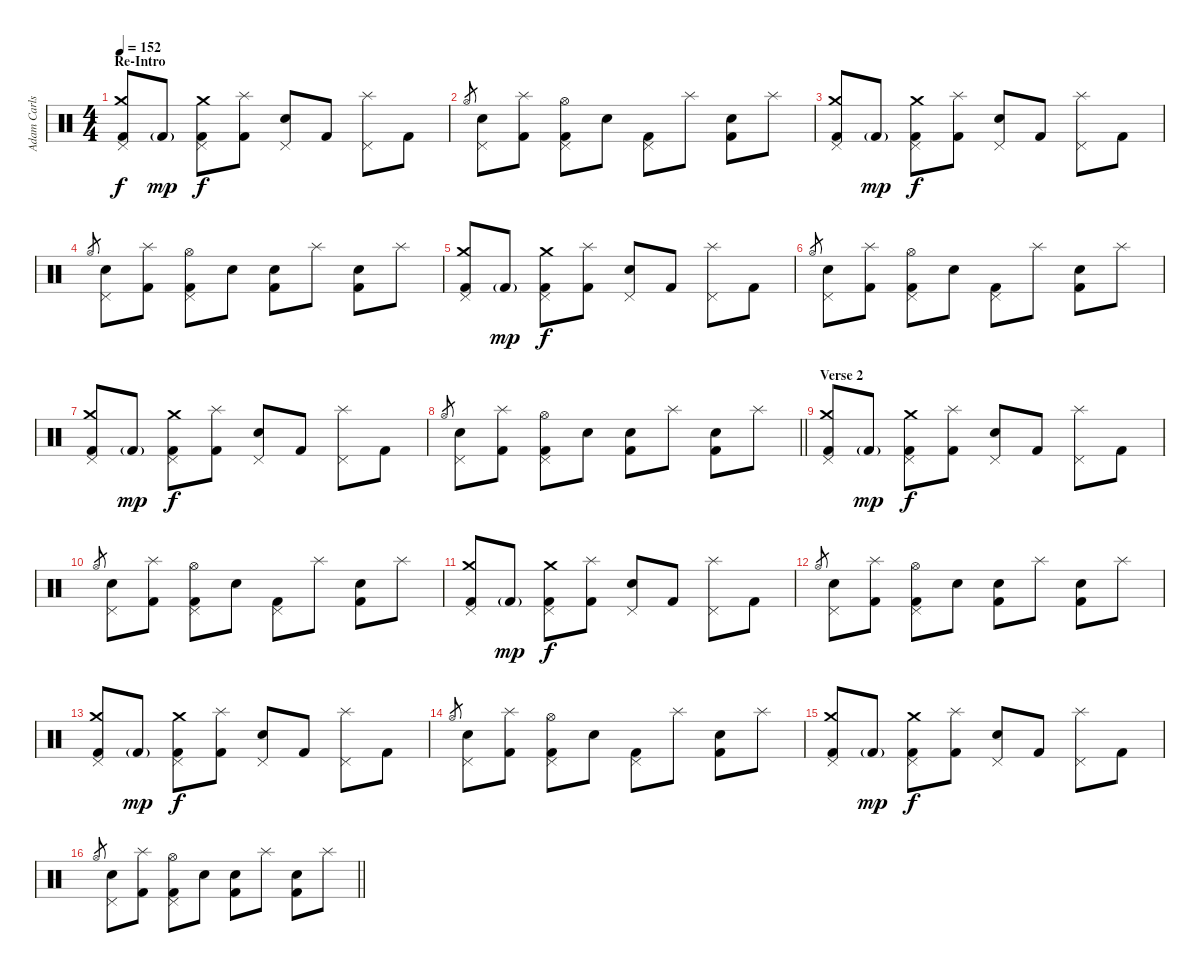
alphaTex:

\track ("Adam Carlson" "Adam Carls") {instrument percussion}
\staff {score}
\articulation defaults
\ts (4 4)
\section ("" "Re-Intro")
\tempo 152
\clef neutral
\ks c
("Pedal Hi-Hat (hit)" "Crash medium (hit)" "Kick (hit) 2").8{dy f} "Kick (hit) 2"{g}.8{dy mp} ("Pedal Hi-Hat (hit)" "Crash medium (hit)" "Kick (hit) 2").8{dy f} ("Splash (hit)" "Kick (hit) 2").8 ("Pedal Hi-Hat (hit)" "Electric Snare (hit)").8 "Kick (hit) 2".8 ("Pedal Hi-Hat (hit)" "Splash (hit)").8 "Kick (hit) 2".8 |
"Hi-Hat (open)".8{gr} ("Pedal Hi-Hat (hit)" "Electric Snare (hit)").8 ("Splash (hit)" "Kick (hit) 2").8 ("Pedal Hi-Hat (hit)" "Hi-Hat (open)" "Kick (hit) 2").8 "Electric Snare (hit)".8 ("Pedal Hi-Hat (hit)" "Kick (hit) 2").8 "Splash (hit)".8 ("Electric Snare (hit)" "Kick (hit) 2").8 "Splash (hit)".8 |
("Pedal Hi-Hat (hit)" "Crash medium (hit)" "Kick (hit) 2").8 "Kick (hit) 2"{g}.8{dy mp} ("Pedal Hi-Hat (hit)" "Crash medium (hit)" "Kick (hit) 2").8{dy f} ("Splash (hit)" "Kick (hit) 2").8 ("Pedal Hi-Hat (hit)" "Electric Snare (hit)").8 "Kick (hit) 2".8 ("Pedal Hi-Hat (hit)" "Splash (hit)").8 "Kick (hit) 2".8 |
"Hi-Hat (open)".8{gr} ("Pedal Hi-Hat (hit)" "Electric Snare (hit)").8 ("Splash (hit)" "Kick (hit) 2").8 ("Pedal Hi-Hat (hit)" "Hi-Hat (open)" "Kick (hit) 2").8 "Electric Snare (hit)".8 ("Electric Snare (hit)" "Kick (hit) 2").8 "Splash (hit)".8 ("Electric Snare (hit)" "Kick (hit) 2").8 "Splash (hit)".8 |
("Pedal Hi-Hat (hit)" "Crash medium (hit)" "Kick (hit) 2").8 "Kick (hit) 2"{g}.8{dy mp} ("Pedal Hi-Hat (hit)" "Crash medium (hit)" "Kick (hit) 2").8{dy f} ("Splash (hit)" "Kick (hit) 2").8 ("Pedal Hi-Hat (hit)" "Electric Snare (hit)").8 "Kick (hit) 2".8 ("Pedal Hi-Hat (hit)" "Splash (hit)").8 "Kick (hit) 2".8 |
"Hi-Hat (open)".8{gr} ("Pedal Hi-Hat (hit)" "Electric Snare (hit)").8 ("Splash (hit)" "Kick (hit) 2").8 ("Pedal Hi-Hat (hit)" "Hi-Hat (open)" "Kick (hit) 2").8 "Electric Snare (hit)".8 ("Pedal Hi-Hat (hit)" "Kick (hit) 2").8 "Splash (hit)".8 ("Electric Snare (hit)" "Kick (hit) 2").8 "Splash (hit)".8 |
("Pedal Hi-Hat (hit)" "Crash medium (hit)" "Kick (hit) 2").8 "Kick (hit) 2"{g}.8{dy mp} ("Pedal Hi-Hat (hit)" "Crash medium (hit)" "Kick (hit) 2").8{dy f} ("Splash (hit)" "Kick (hit) 2").8 ("Pedal Hi-Hat (hit)" "Electric Snare (hit)").8 "Kick (hit) 2".8 ("Pedal Hi-Hat (hit)" "Splash (hit)").8 "Kick (hit) 2".8 |
\barLineRight lightlight "Hi-Hat (open)".8{gr}
("Pedal Hi-Hat (hit)" "Electric Snare (hit)").8 ("Splash (hit)" "Kick (hit) 2").8 ("Pedal Hi-Hat (hit)" "Hi-Hat (open)" "Kick (hit) 2").8 "Electric Snare (hit)".8 ("Electric Snare (hit)" "Kick (hit) 2").8 "Splash (hit)".8 ("Electric Snare (hit)" "Kick (hit) 2").8 "Splash (hit)".8 |
\section ("" "Verse 2")
("Pedal Hi-Hat (hit)" "Crash medium (hit)" "Kick (hit) 2").8 "Kick (hit) 2"{g}.8{dy mp} ("Pedal Hi-Hat (hit)" "Crash medium (hit)" "Kick (hit) 2").8{dy f} ("Splash (hit)" "Kick (hit) 2").8 ("Pedal Hi-Hat (hit)" "Electric Snare (hit)").8 "Kick (hit) 2".8 ("Pedal Hi-Hat (hit)" "Splash (hit)").8 "Kick (hit) 2".8 |
"Hi-Hat (open)".8{gr} ("Pedal Hi-Hat (hit)" "Electric Snare (hit)").8 ("Splash (hit)" "Kick (hit) 2").8 ("Pedal Hi-Hat (hit)" "Hi-Hat (open)" "Kick (hit) 2").8 "Electric Snare (hit)".8 ("Pedal Hi-Hat (hit)" "Kick (hit) 2").8 "Splash (hit)".8 ("Electric Snare (hit)" "Kick (hit) 2").8 "Splash (hit)".8 |
("Pedal Hi-Hat (hit)" "Crash medium (hit)" "Kick (hit) 2").8 "Kick (hit) 2"{g}.8{dy mp} ("Pedal Hi-Hat (hit)" "Crash medium (hit)" "Kick (hit) 2").8{dy f} ("Splash (hit)" "Kick (hit) 2").8 ("Pedal Hi-Hat (hit)" "Electric Snare (hit)").8 "Kick (hit) 2".8 ("Pedal Hi-Hat (hit)" "Splash (hit)").8 "Kick (hit) 2".8 |
"Hi-Hat (open)".8{gr} ("Pedal Hi-Hat (hit)" "Electric Snare (hit)").8 ("Splash (hit)" "Kick (hit) 2").8 ("Pedal Hi-Hat (hit)" "Hi-Hat (open)" "Kick (hit) 2").8 "Electric Snare (hit)".8 ("Electric Snare (hit)" "Kick (hit) 2").8 "Splash (hit)".8 ("Electric Snare (hit)" "Kick (hit) 2").8 "Splash (hit)".8 |
("Pedal Hi-Hat (hit)" "Crash medium (hit)" "Kick (hit) 2").8 "Kick (hit) 2"{g}.8{dy mp} ("Pedal Hi-Hat (hit)" "Crash medium (hit)" "Kick (hit) 2").8{dy f} ("Splash (hit)" "Kick (hit) 2").8 ("Pedal Hi-Hat (hit)" "Electric Snare (hit)").8 "Kick (hit) 2".8 ("Pedal Hi-Hat (hit)" "Splash (hit)").8 "Kick (hit) 2".8 |
"Hi-Hat (open)".8{gr} ("Pedal Hi-Hat (hit)" "Electric Snare (hit)").8 ("Splash (hit)" "Kick (hit) 2").8 ("Pedal Hi-Hat (hit)" "Hi-Hat (open)" "Kick (hit) 2").8 "Electric Snare (hit)".8 ("Pedal Hi-Hat (hit)" "Kick (hit) 2").8 "Splash (hit)".8 ("Electric Snare (hit)" "Kick (hit) 2").8 "Splash (hit)".8 |
("Pedal Hi-Hat (hit)" "Crash medium (hit)" "Kick (hit) 2").8 "Kick (hit) 2"{g}.8{dy mp} ("Pedal Hi-Hat (hit)" "Crash medium (hit)" "Kick (hit) 2").8{dy f} ("Splash (hit)" "Kick (hit) 2").8 ("Pedal Hi-Hat (hit)" "Electric Snare (hit)").8 "Kick (hit) 2".8 ("Pedal Hi-Hat (hit)" "Splash (hit)").8 "Kick (hit) 2".8 |
\barLineRight lightlight "Hi-Hat (open)".8{gr}
("Pedal Hi-Hat (hit)" "Electric Snare (hit)").8 ("Splash (hit)" "Kick (hit) 2").8 ("Pedal Hi-Hat (hit)" "Hi-Hat (open)" "Kick (hit) 2").8 "Electric Snare (hit)".8 ("Electric Snare (hit)" "Kick (hit) 2").8 "Splash (hit)".8 ("Electric Snare (hit)" "Kick (hit) 2").8 "Splash (hit)".8
